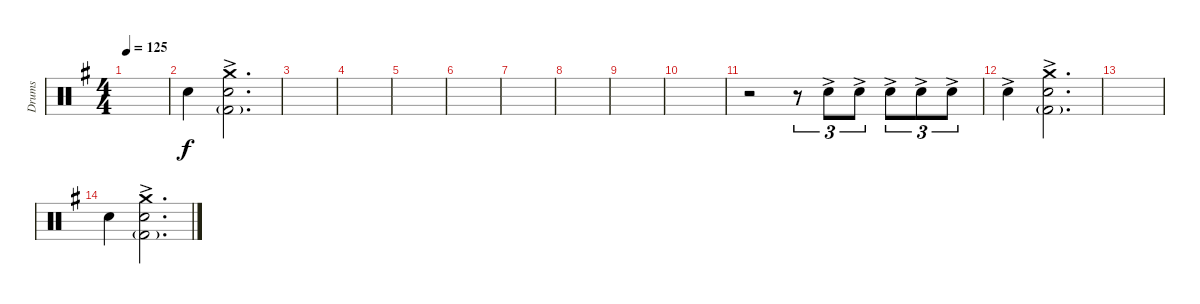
\defaultSystemsLayout 4
\bracketExtendMode groupsimilarinstruments
\otherSystemsTrackNameOrientation horizontal
\track ("Drumkit" "Drums") {instrument percussion}
\staff {score}
\articulation defaults
\ts (4 4)
\tempo 125
\clef neutral
\scale
0.333333
\ks g
|
\scale
0.333333 "Snare (hit) 2"{acc forcenatural}.4{beam Down} ("Snare (hit) 2"{acc forcenatural} "Kick (hit) 2"{g acc forcenatural} "Crash medium (hit)"{ac acc forcenatural}).2{d beam Down} |
\scale
0.333333 |
\scale
0.333333 |
\scale
0.333333 |
\scale
0.333333 |
\scale
0.333333 |
\scale
0.333333 |
\scale
0.333333 |
\scale
0.333333 |
\scale
0.333333 r.2{beam Down} r.8{tu (3 2) beam Down} "Snare (hit) 2"{ac acc forcenatural}.8{tu (3 2) beam Down} "Snare (hit) 2"{ac acc forcenatural}.8{tu (3 2) beam Down} "Snare (hit) 2"{ac acc forcenatural}.8{tu (3 2) beam Down} "Snare (hit) 2"{ac acc forcenatural}.8{tu (3 2) beam Down} "Snare (hit) 2"{ac acc forcenatural}.8{tu (3 2) beam Down} |
\scale
0.333333 "Snare (hit) 2"{ac acc forcenatural}.4{beam Down} ("Snare (hit) 2"{acc forcenatural} "Kick (hit) 2"{g acc forcenatural} "Crash medium (hit)"{ac acc forcenatural}).2{d beam Down} |
\scale
0.333333 |
\scale
0.333333 "Snare (hit) 2"{acc forcenatural}.4{beam Down} ("Snare (hit) 2"{acc forcenatural} "Kick (hit) 2"{g acc forcenatural} "Crash medium (hit)"{ac acc forcenatural}).2{d beam Down} |
\scale
0.333333 |
\scale
0.333333
